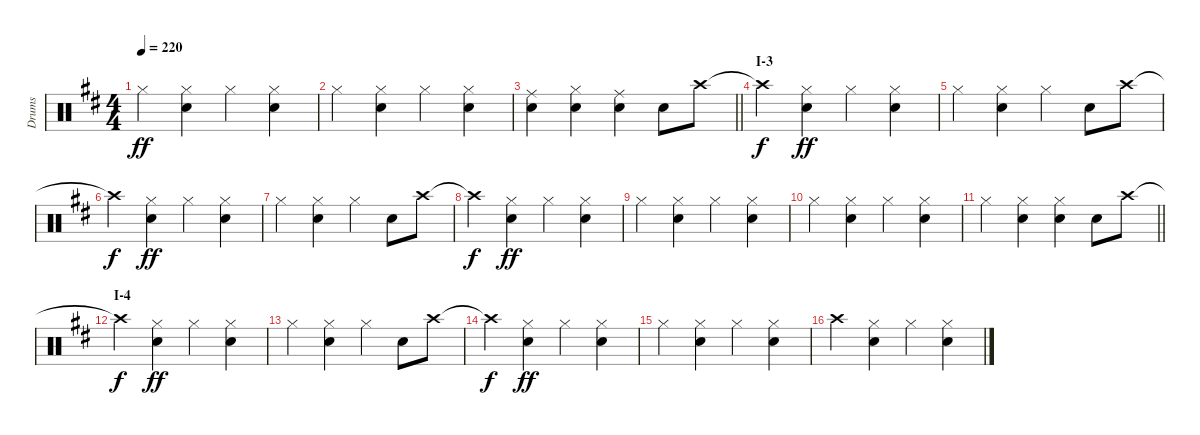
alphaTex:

\track ("Drums" "Drums") {instrument percussion}
\staff {score}
\articulation defaults
\ts (4 4)
\tempo 220
\clef neutral
\ks d "Hi-Hat (closed)".4{dy ff}
("Hi-Hat (closed)" "Snare (hit) 2").4 "Hi-Hat (closed)".4 ("Hi-Hat (closed)" "Snare (hit) 2").4 |
"Hi-Hat (closed)".4 ("Hi-Hat (closed)" "Snare (hit) 2").4 "Hi-Hat (closed)".4 ("Hi-Hat (closed)" "Snare (hit) 2").4 |
\barLineRight lightlight
("Ride (middle)" "Snare (hit) 2").4 ("Hi-Hat (closed)" "Snare (hit) 2").4 ("Ride (middle)" "Snare (hit) 2").4 "Snare (hit) 2".8 "Crash high (hit)".8 |
\section ("" "I-3")
"Crash high (hit)"{t}.4{dy f} ("Hi-Hat (closed)" "Snare (hit) 2").4{dy ff} "Hi-Hat (closed)".4 ("Hi-Hat (closed)" "Snare (hit) 2").4 |
"Hi-Hat (closed)".4 ("Hi-Hat (closed)" "Snare (hit) 2").4 "Hi-Hat (closed)".4 "Snare (hit) 2".8 "Crash high (hit)".8 |
"Crash high (hit)"{t}.4{dy f} ("Hi-Hat (closed)" "Snare (hit) 2").4{dy ff} "Hi-Hat (closed)".4 ("Hi-Hat (closed)" "Snare (hit) 2").4 |
"Hi-Hat (closed)".4 ("Hi-Hat (closed)" "Snare (hit) 2").4 "Hi-Hat (closed)".4 "Snare (hit) 2".8 "Crash high (hit)".8 |
"Crash high (hit)"{t}.4{dy f} ("Hi-Hat (closed)" "Snare (hit) 2").4{dy ff} "Hi-Hat (closed)".4 ("Hi-Hat (closed)" "Snare (hit) 2").4 |
"Hi-Hat (closed)".4 ("Hi-Hat (closed)" "Snare (hit) 2").4 "Hi-Hat (closed)".4 ("Hi-Hat (closed)" "Snare (hit) 2").4 |
"Hi-Hat (closed)".4 ("Hi-Hat (closed)" "Snare (hit) 2").4 "Hi-Hat (closed)".4 ("Hi-Hat (closed)" "Snare (hit) 2").4 |
\barLineRight lightlight "Hi-Hat (closed)".4
("Hi-Hat (closed)" "Snare (hit) 2").4 ("Hi-Hat (closed)" "Snare (hit) 2").4 "Snare (hit) 2".8 "Crash high (hit)".8 |
\section ("" "I-4")
"Crash high (hit)"{t}.4{dy f} ("Hi-Hat (closed)" "Snare (hit) 2").4{dy ff} "Hi-Hat (closed)".4 ("Hi-Hat (closed)" "Snare (hit) 2").4 |
"Hi-Hat (closed)".4 ("Hi-Hat (closed)" "Snare (hit) 2").4 "Hi-Hat (closed)".4 "Snare (hit) 2".8 "Crash high (hit)".8 |
"Crash high (hit)"{t}.4{dy f} ("Hi-Hat (closed)" "Snare (hit) 2").4{dy ff} "Hi-Hat (closed)".4 ("Hi-Hat (closed)" "Snare (hit) 2").4 |
"Hi-Hat (closed)".4 ("Hi-Hat (closed)" "Snare (hit) 2").4 "Hi-Hat (closed)".4 ("Hi-Hat (closed)" "Snare (hit) 2").4 |
"Crash high (hit)".4 ("Hi-Hat (closed)" "Snare (hit) 2").4 "Hi-Hat (closed)".4 ("Hi-Hat (closed)" "Snare (hit) 2").4
